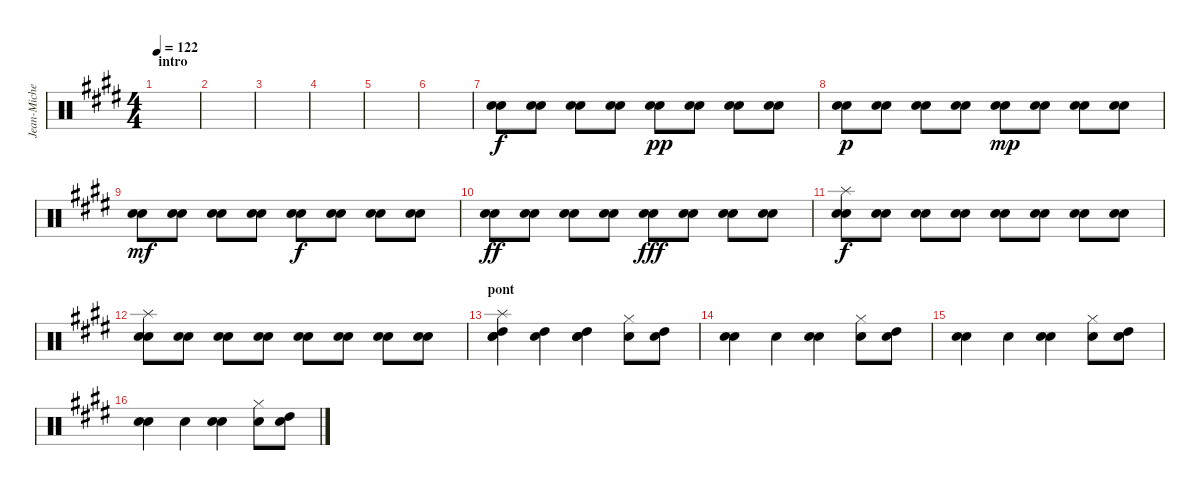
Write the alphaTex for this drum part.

\track ("Jean-Michel Truong (Batterie)" "Jean-Miche") {instrument percussion}
\staff {score}
\articulation defaults
\ts (4 4)
\section ("" "intro")
\tempo 122
\clef neutral
\ks e
|
|
|
|
|
|
("Snare (hit) 2" "Electric Snare (hit)").8 ("Snare (hit) 2" "Electric Snare (hit)").8 ("Snare (hit) 2" "Electric Snare (hit)").8 ("Snare (hit) 2" "Electric Snare (hit)").8 ("Snare (hit) 2" "Electric Snare (hit)").8{dy pp} ("Snare (hit) 2" "Electric Snare (hit)").8 ("Snare (hit) 2" "Electric Snare (hit)").8 ("Snare (hit) 2" "Electric Snare (hit)").8 |
("Snare (hit) 2" "Electric Snare (hit)").8{dy p} ("Snare (hit) 2" "Electric Snare (hit)").8 ("Snare (hit) 2" "Electric Snare (hit)").8 ("Snare (hit) 2" "Electric Snare (hit)").8 ("Snare (hit) 2" "Electric Snare (hit)").8{dy mp} ("Snare (hit) 2" "Electric Snare (hit)").8 ("Snare (hit) 2" "Electric Snare (hit)").8 ("Snare (hit) 2" "Electric Snare (hit)").8 |
("Snare (hit) 2" "Electric Snare (hit)").8{dy mf} ("Snare (hit) 2" "Electric Snare (hit)").8 ("Snare (hit) 2" "Electric Snare (hit)").8 ("Snare (hit) 2" "Electric Snare (hit)").8 ("Snare (hit) 2" "Electric Snare (hit)").8{dy f} ("Snare (hit) 2" "Electric Snare (hit)").8 ("Snare (hit) 2" "Electric Snare (hit)").8 ("Snare (hit) 2" "Electric Snare (hit)").8 |
("Snare (hit) 2" "Electric Snare (hit)").8{dy ff} ("Snare (hit) 2" "Electric Snare (hit)").8 ("Snare (hit) 2" "Electric Snare (hit)").8 ("Snare (hit) 2" "Electric Snare (hit)").8 ("Snare (hit) 2" "Electric Snare (hit)").8{dy fff} ("Snare (hit) 2" "Electric Snare (hit)").8 ("Snare (hit) 2" "Electric Snare (hit)").8 ("Snare (hit) 2" "Electric Snare (hit)").8 |
("Snare (hit) 2" "Electric Snare (hit)" "Splash (hit)").8{dy f} ("Snare (hit) 2" "Electric Snare (hit)").8 ("Snare (hit) 2" "Electric Snare (hit)").8 ("Snare (hit) 2" "Electric Snare (hit)").8 ("Snare (hit) 2" "Electric Snare (hit)").8 ("Snare (hit) 2" "Electric Snare (hit)").8 ("Snare (hit) 2" "Electric Snare (hit)").8 ("Snare (hit) 2" "Electric Snare (hit)").8 |
("Snare (hit) 2" "Electric Snare (hit)" "Splash (hit)").8 ("Snare (hit) 2" "Electric Snare (hit)").8 ("Snare (hit) 2" "Electric Snare (hit)").8 ("Snare (hit) 2" "Electric Snare (hit)").8 ("Snare (hit) 2" "Electric Snare (hit)").8 ("Snare (hit) 2" "Electric Snare (hit)").8 ("Snare (hit) 2" "Electric Snare (hit)").8 ("Snare (hit) 2" "Electric Snare (hit)").8 |
\section ("" "pont")
("Snare (hit) 2" "Electric Snare (hit)" "High Tom (hit)" "Splash (hit)").4 ("Electric Snare (hit)" "High Tom (hit)").4 ("Snare (hit) 2" "Electric Snare (hit)" "High Tom (hit)").4 ("Electric Snare (hit)" "Hi-Hat (closed)").8 ("Electric Snare (hit)" "High Tom (hit)").8 |
("Snare (hit) 2" "Electric Snare (hit)").4 "Electric Snare (hit)".4 ("Snare (hit) 2" "Electric Snare (hit)").4 ("Electric Snare (hit)" "Hi-Hat (closed)").8 ("Electric Snare (hit)" "High Tom (hit)").8 |
("Snare (hit) 2" "Electric Snare (hit)").4 "Electric Snare (hit)".4 ("Snare (hit) 2" "Electric Snare (hit)").4 ("Electric Snare (hit)" "Hi-Hat (closed)").8 ("Electric Snare (hit)" "High Tom (hit)").8 |
("Snare (hit) 2" "Electric Snare (hit)").4 "Electric Snare (hit)".4 ("Snare (hit) 2" "Electric Snare (hit)").4 ("Electric Snare (hit)" "Hi-Hat (closed)").8 ("Electric Snare (hit)" "High Tom (hit)").8
